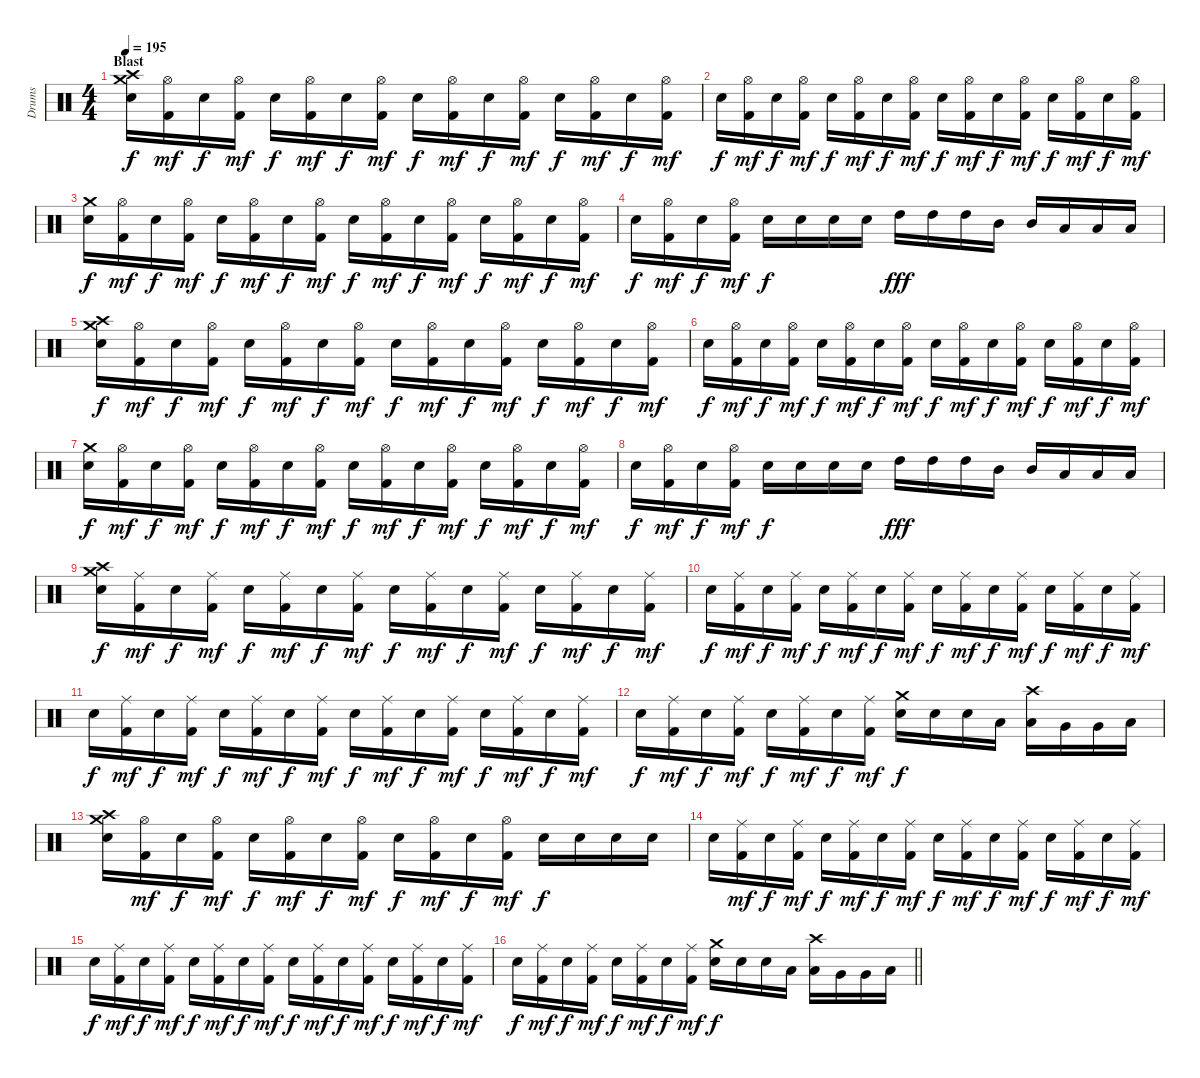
\track ("Drums" "Drums") {instrument percussion}
\staff {score}
\articulation defaults
\ts (4 4)
\section ("" "Blast")
\tempo 195
\clef neutral
\ks c
("Crash medium (hit)" "Crash high (hit)" "Snare (hit) 2").16{dy f} ("Hi-Hat (open)" "Kick (hit) 2").16{dy mf} "Snare (hit) 2".16{dy f} ("Hi-Hat (open)" "Kick (hit) 2").16{dy mf} "Snare (hit) 2".16{dy f} ("Hi-Hat (open)" "Kick (hit) 2").16{dy mf} "Snare (hit) 2".16{dy f} ("Hi-Hat (open)" "Kick (hit) 2").16{dy mf} "Snare (hit) 2".16{dy f} ("Hi-Hat (open)" "Kick (hit) 2").16{dy mf} "Snare (hit) 2".16{dy f} ("Hi-Hat (open)" "Kick (hit) 2").16{dy mf} "Snare (hit) 2".16{dy f} ("Hi-Hat (open)" "Kick (hit) 2").16{dy mf} "Snare (hit) 2".16{dy f} ("Hi-Hat (open)" "Kick (hit) 2").16{dy mf} |
"Snare (hit) 2".16{dy f} ("Hi-Hat (open)" "Kick (hit) 2").16{dy mf} "Snare (hit) 2".16{dy f} ("Hi-Hat (open)" "Kick (hit) 2").16{dy mf} "Snare (hit) 2".16{dy f} ("Hi-Hat (open)" "Kick (hit) 2").16{dy mf} "Snare (hit) 2".16{dy f} ("Hi-Hat (open)" "Kick (hit) 2").16{dy mf} "Snare (hit) 2".16{dy f} ("Hi-Hat (open)" "Kick (hit) 2").16{dy mf} "Snare (hit) 2".16{dy f} ("Hi-Hat (open)" "Kick (hit) 2").16{dy mf} "Snare (hit) 2".16{dy f} ("Hi-Hat (open)" "Kick (hit) 2").16{dy mf} "Snare (hit) 2".16{dy f} ("Hi-Hat (open)" "Kick (hit) 2").16{dy mf} |
("Crash medium (hit)" "Snare (hit) 2").16{dy f} ("Hi-Hat (open)" "Kick (hit) 2").16{dy mf} "Snare (hit) 2".16{dy f} ("Hi-Hat (open)" "Kick (hit) 2").16{dy mf} "Snare (hit) 2".16{dy f} ("Hi-Hat (open)" "Kick (hit) 2").16{dy mf} "Snare (hit) 2".16{dy f} ("Hi-Hat (open)" "Kick (hit) 2").16{dy mf} "Snare (hit) 2".16{dy f} ("Hi-Hat (open)" "Kick (hit) 2").16{dy mf} "Snare (hit) 2".16{dy f} ("Hi-Hat (open)" "Kick (hit) 2").16{dy mf} "Snare (hit) 2".16{dy f} ("Hi-Hat (open)" "Kick (hit) 2").16{dy mf} "Snare (hit) 2".16{dy f} ("Hi-Hat (open)" "Kick (hit) 2").16{dy mf} |
"Snare (hit) 2".16{dy f} ("Hi-Hat (open)" "Kick (hit) 2").16{dy mf} "Snare (hit) 2".16{dy f} ("Hi-Hat (open)" "Kick (hit) 2").16{dy mf} "Snare (hit) 2".16{dy f} "Snare (hit) 2".16 "Snare (hit) 2".16 "Snare (hit) 2".16 "High Tom (hit)".16{dy fff} "High Tom (hit)".16 "High Tom (hit)".16 "Mid Tom (hit)".16 "Mid Tom (hit)".16 "Low Tom (hit)".16 "Low Tom (hit)".16 "Low Tom (hit)".16 |
("Crash medium (hit)" "Crash high (hit)" "Snare (hit) 2").16{dy f} ("Hi-Hat (open)" "Kick (hit) 2").16{dy mf} "Snare (hit) 2".16{dy f} ("Hi-Hat (open)" "Kick (hit) 2").16{dy mf} "Snare (hit) 2".16{dy f} ("Hi-Hat (open)" "Kick (hit) 2").16{dy mf} "Snare (hit) 2".16{dy f} ("Hi-Hat (open)" "Kick (hit) 2").16{dy mf} "Snare (hit) 2".16{dy f} ("Hi-Hat (open)" "Kick (hit) 2").16{dy mf} "Snare (hit) 2".16{dy f} ("Hi-Hat (open)" "Kick (hit) 2").16{dy mf} "Snare (hit) 2".16{dy f} ("Hi-Hat (open)" "Kick (hit) 2").16{dy mf} "Snare (hit) 2".16{dy f} ("Hi-Hat (open)" "Kick (hit) 2").16{dy mf} |
"Snare (hit) 2".16{dy f} ("Hi-Hat (open)" "Kick (hit) 2").16{dy mf} "Snare (hit) 2".16{dy f} ("Hi-Hat (open)" "Kick (hit) 2").16{dy mf} "Snare (hit) 2".16{dy f} ("Hi-Hat (open)" "Kick (hit) 2").16{dy mf} "Snare (hit) 2".16{dy f} ("Hi-Hat (open)" "Kick (hit) 2").16{dy mf} "Snare (hit) 2".16{dy f} ("Hi-Hat (open)" "Kick (hit) 2").16{dy mf} "Snare (hit) 2".16{dy f} ("Hi-Hat (open)" "Kick (hit) 2").16{dy mf} "Snare (hit) 2".16{dy f} ("Hi-Hat (open)" "Kick (hit) 2").16{dy mf} "Snare (hit) 2".16{dy f} ("Hi-Hat (open)" "Kick (hit) 2").16{dy mf} |
("Crash medium (hit)" "Snare (hit) 2").16{dy f} ("Hi-Hat (open)" "Kick (hit) 2").16{dy mf} "Snare (hit) 2".16{dy f} ("Hi-Hat (open)" "Kick (hit) 2").16{dy mf} "Snare (hit) 2".16{dy f} ("Hi-Hat (open)" "Kick (hit) 2").16{dy mf} "Snare (hit) 2".16{dy f} ("Hi-Hat (open)" "Kick (hit) 2").16{dy mf} "Snare (hit) 2".16{dy f} ("Hi-Hat (open)" "Kick (hit) 2").16{dy mf} "Snare (hit) 2".16{dy f} ("Hi-Hat (open)" "Kick (hit) 2").16{dy mf} "Snare (hit) 2".16{dy f} ("Hi-Hat (open)" "Kick (hit) 2").16{dy mf} "Snare (hit) 2".16{dy f} ("Hi-Hat (open)" "Kick (hit) 2").16{dy mf} |
"Snare (hit) 2".16{dy f} ("Hi-Hat (open)" "Kick (hit) 2").16{dy mf} "Snare (hit) 2".16{dy f} ("Hi-Hat (open)" "Kick (hit) 2").16{dy mf} "Snare (hit) 2".16{dy f} "Snare (hit) 2".16 "Snare (hit) 2".16 "Snare (hit) 2".16 "High Tom (hit)".16{dy fff} "High Tom (hit)".16 "High Tom (hit)".16 "Mid Tom (hit)".16 "Mid Tom (hit)".16 "Low Tom (hit)".16 "Low Tom (hit)".16 "Low Tom (hit)".16 |
("Crash medium (hit)" "Crash high (hit)" "Snare (hit) 2").16{dy f} ("Ride (middle)" "Kick (hit) 2").16{dy mf} "Snare (hit) 2".16{dy f} ("Ride (middle)" "Kick (hit) 2").16{dy mf} "Snare (hit) 2".16{dy f} ("Ride (middle)" "Kick (hit) 2").16{dy mf} "Snare (hit) 2".16{dy f} ("Ride (middle)" "Kick (hit) 2").16{dy mf} "Snare (hit) 2".16{dy f} ("Ride (middle)" "Kick (hit) 2").16{dy mf} "Snare (hit) 2".16{dy f} ("Ride (middle)" "Kick (hit) 2").16{dy mf} "Snare (hit) 2".16{dy f} ("Ride (middle)" "Kick (hit) 2").16{dy mf} "Snare (hit) 2".16{dy f} ("Ride (middle)" "Kick (hit) 2").16{dy mf} |
"Snare (hit) 2".16{dy f} ("Ride (middle)" "Kick (hit) 2").16{dy mf} "Snare (hit) 2".16{dy f} ("Ride (middle)" "Kick (hit) 2").16{dy mf} "Snare (hit) 2".16{dy f} ("Ride (middle)" "Kick (hit) 2").16{dy mf} "Snare (hit) 2".16{dy f} ("Ride (middle)" "Kick (hit) 2").16{dy mf} "Snare (hit) 2".16{dy f} ("Ride (middle)" "Kick (hit) 2").16{dy mf} "Snare (hit) 2".16{dy f} ("Ride (middle)" "Kick (hit) 2").16{dy mf} "Snare (hit) 2".16{dy f} ("Ride (middle)" "Kick (hit) 2").16{dy mf} "Snare (hit) 2".16{dy f} ("Ride (middle)" "Kick (hit) 2").16{dy mf} |
"Snare (hit) 2".16{dy f} ("Ride (middle)" "Kick (hit) 2").16{dy mf} "Snare (hit) 2".16{dy f} ("Ride (middle)" "Kick (hit) 2").16{dy mf} "Snare (hit) 2".16{dy f} ("Ride (middle)" "Kick (hit) 2").16{dy mf} "Snare (hit) 2".16{dy f} ("Ride (middle)" "Kick (hit) 2").16{dy mf} "Snare (hit) 2".16{dy f} ("Ride (middle)" "Kick (hit) 2").16{dy mf} "Snare (hit) 2".16{dy f} ("Ride (middle)" "Kick (hit) 2").16{dy mf} "Snare (hit) 2".16{dy f} ("Ride (middle)" "Kick (hit) 2").16{dy mf} "Snare (hit) 2".16{dy f} ("Ride (middle)" "Kick (hit) 2").16{dy mf} |
"Snare (hit) 2".16{dy f} ("Ride (middle)" "Kick (hit) 2").16{dy mf} "Snare (hit) 2".16{dy f} ("Ride (middle)" "Kick (hit) 2").16{dy mf} "Snare (hit) 2".16{dy f} ("Ride (middle)" "Kick (hit) 2").16{dy mf} "Snare (hit) 2".16{dy f} ("Ride (middle)" "Kick (hit) 2").16{dy mf} ("Crash medium (hit)" "Snare (hit) 2").16{dy f} "Snare (hit) 2".16 "Snare (hit) 2".16 "Low Tom (hit)".16 ("Crash high (hit)" "Low Tom (hit)").16 "Very Low Tom (hit)".16 "Very Low Tom (hit)".16 "Low Floor Tom (hit)".16 |
("Crash medium (hit)" "Crash high (hit)" "Snare (hit) 2").16 ("Hi-Hat (open)" "Kick (hit) 2").16{dy mf} "Snare (hit) 2".16{dy f} ("Hi-Hat (open)" "Kick (hit) 2").16{dy mf} "Snare (hit) 2".16{dy f} ("Hi-Hat (open)" "Kick (hit) 2").16{dy mf} "Snare (hit) 2".16{dy f} ("Hi-Hat (open)" "Kick (hit) 2").16{dy mf} "Snare (hit) 2".16{dy f} ("Hi-Hat (open)" "Kick (hit) 2").16{dy mf} "Snare (hit) 2".16{dy f} ("Hi-Hat (open)" "Kick (hit) 2").16{dy mf} "Snare (hit) 2".16{dy f} "Snare (hit) 2".16 "Snare (hit) 2".16 "Snare (hit) 2".16 |
"Snare (hit) 2".16 ("Ride (middle)" "Kick (hit) 2").16{dy mf} "Snare (hit) 2".16{dy f} ("Ride (middle)" "Kick (hit) 2").16{dy mf} "Snare (hit) 2".16{dy f} ("Ride (middle)" "Kick (hit) 2").16{dy mf} "Snare (hit) 2".16{dy f} ("Ride (middle)" "Kick (hit) 2").16{dy mf} "Snare (hit) 2".16{dy f} ("Ride (middle)" "Kick (hit) 2").16{dy mf} "Snare (hit) 2".16{dy f} ("Ride (middle)" "Kick (hit) 2").16{dy mf} "Snare (hit) 2".16{dy f} ("Ride (middle)" "Kick (hit) 2").16{dy mf} "Snare (hit) 2".16{dy f} ("Ride (middle)" "Kick (hit) 2").16{dy mf} |
"Snare (hit) 2".16{dy f} ("Ride (middle)" "Kick (hit) 2").16{dy mf} "Snare (hit) 2".16{dy f} ("Ride (middle)" "Kick (hit) 2").16{dy mf} "Snare (hit) 2".16{dy f} ("Ride (middle)" "Kick (hit) 2").16{dy mf} "Snare (hit) 2".16{dy f} ("Ride (middle)" "Kick (hit) 2").16{dy mf} "Snare (hit) 2".16{dy f} ("Ride (middle)" "Kick (hit) 2").16{dy mf} "Snare (hit) 2".16{dy f} ("Ride (middle)" "Kick (hit) 2").16{dy mf} "Snare (hit) 2".16{dy f} ("Ride (middle)" "Kick (hit) 2").16{dy mf} "Snare (hit) 2".16{dy f} ("Ride (middle)" "Kick (hit) 2").16{dy mf} |
\barLineRight lightlight "Snare (hit) 2".16{dy f}
("Ride (middle)" "Kick (hit) 2").16{dy mf} "Snare (hit) 2".16{dy f} ("Ride (middle)" "Kick (hit) 2").16{dy mf} "Snare (hit) 2".16{dy f} ("Ride (middle)" "Kick (hit) 2").16{dy mf} "Snare (hit) 2".16{dy f} ("Ride (middle)" "Kick (hit) 2").16{dy mf} ("Crash medium (hit)" "Snare (hit) 2").16{dy f} "Snare (hit) 2".16 "Snare (hit) 2".16 "Low Tom (hit)".16 ("Crash high (hit)" "Low Tom (hit)").16 "Very Low Tom (hit)".16 "Very Low Tom (hit)".16 "Low Floor Tom (hit)".16
